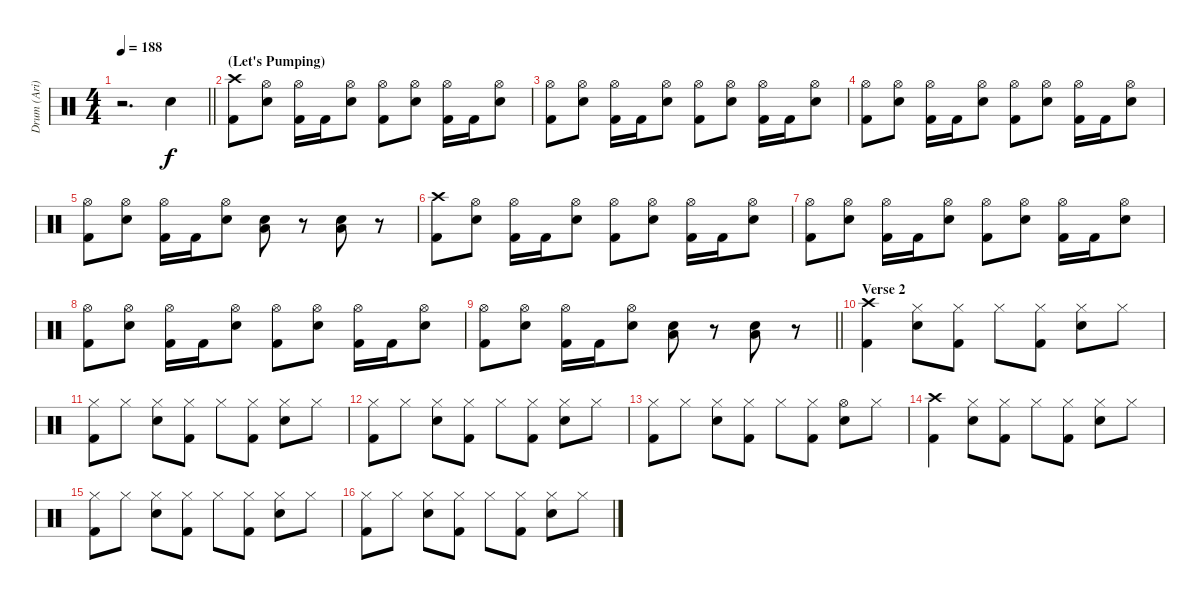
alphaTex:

\track ("Drum (Ari)" "Drum (Ari)") {instrument percussion}
\staff {score}
\articulation defaults
\ts (4 4)
\tempo 188
\clef neutral
\barLineRight lightlight
\ks c
r.2{d dy f} "Electric Snare (hit)".4 |
\section ("" "(Let's Pumping)")
("Crash high (hit)" "Kick (hit) 2").8 ("Hi-Hat (open)" "Electric Snare (hit)").8 ("Hi-Hat (open)" "Kick (hit) 2").16 "Kick (hit) 2".16 ("Hi-Hat (open)" "Electric Snare (hit)").8 ("Hi-Hat (open)" "Kick (hit) 2").8 ("Hi-Hat (open)" "Electric Snare (hit)").8 ("Hi-Hat (open)" "Kick (hit) 2").16 "Kick (hit) 2".16 ("Hi-Hat (open)" "Electric Snare (hit)").8 |
("Hi-Hat (open)" "Kick (hit) 2").8 ("Hi-Hat (open)" "Electric Snare (hit)").8 ("Hi-Hat (open)" "Kick (hit) 2").16 "Kick (hit) 2".16 ("Hi-Hat (open)" "Electric Snare (hit)").8 ("Hi-Hat (open)" "Kick (hit) 2").8 ("Hi-Hat (open)" "Electric Snare (hit)").8 ("Hi-Hat (open)" "Kick (hit) 2").16 "Kick (hit) 2".16 ("Hi-Hat (open)" "Electric Snare (hit)").8 |
("Hi-Hat (open)" "Kick (hit) 2").8 ("Hi-Hat (open)" "Electric Snare (hit)").8 ("Hi-Hat (open)" "Kick (hit) 2").16 "Kick (hit) 2".16 ("Hi-Hat (open)" "Electric Snare (hit)").8 ("Hi-Hat (open)" "Kick (hit) 2").8 ("Hi-Hat (open)" "Electric Snare (hit)").8 ("Hi-Hat (open)" "Kick (hit) 2").16 "Kick (hit) 2".16 ("Hi-Hat (open)" "Electric Snare (hit)").8 |
("Hi-Hat (open)" "Kick (hit) 2").8 ("Hi-Hat (open)" "Electric Snare (hit)").8 ("Hi-Hat (open)" "Kick (hit) 2").16 "Kick (hit) 2".16 ("Hi-Hat (open)" "Electric Snare (hit)").8 ("Electric Snare (hit)" "Low Floor Tom (hit)").8 r.8 ("Electric Snare (hit)" "Low Floor Tom (hit)").8 r.8 |
("Crash high (hit)" "Kick (hit) 2").8 ("Hi-Hat (open)" "Electric Snare (hit)").8 ("Hi-Hat (open)" "Kick (hit) 2").16 "Kick (hit) 2".16 ("Hi-Hat (open)" "Electric Snare (hit)").8 ("Hi-Hat (open)" "Kick (hit) 2").8 ("Hi-Hat (open)" "Electric Snare (hit)").8 ("Hi-Hat (open)" "Kick (hit) 2").16 "Kick (hit) 2".16 ("Hi-Hat (open)" "Electric Snare (hit)").8 |
("Hi-Hat (open)" "Kick (hit) 2").8 ("Hi-Hat (open)" "Electric Snare (hit)").8 ("Hi-Hat (open)" "Kick (hit) 2").16 "Kick (hit) 2".16 ("Hi-Hat (open)" "Electric Snare (hit)").8 ("Hi-Hat (open)" "Kick (hit) 2").8 ("Hi-Hat (open)" "Electric Snare (hit)").8 ("Hi-Hat (open)" "Kick (hit) 2").16 "Kick (hit) 2".16 ("Hi-Hat (open)" "Electric Snare (hit)").8 |
("Hi-Hat (open)" "Kick (hit) 2").8 ("Hi-Hat (open)" "Electric Snare (hit)").8 ("Hi-Hat (open)" "Kick (hit) 2").16 "Kick (hit) 2".16 ("Hi-Hat (open)" "Electric Snare (hit)").8 ("Hi-Hat (open)" "Kick (hit) 2").8 ("Hi-Hat (open)" "Electric Snare (hit)").8 ("Hi-Hat (open)" "Kick (hit) 2").16 "Kick (hit) 2".16 ("Hi-Hat (open)" "Electric Snare (hit)").8 |
\barLineRight lightlight
("Hi-Hat (open)" "Kick (hit) 2").8 ("Hi-Hat (open)" "Electric Snare (hit)").8 ("Hi-Hat (open)" "Kick (hit) 2").16 "Kick (hit) 2".16 ("Hi-Hat (open)" "Electric Snare (hit)").8 ("Electric Snare (hit)" "Low Floor Tom (hit)").8 r.8 ("Electric Snare (hit)" "Low Floor Tom (hit)").8 r.8 |
\section ("" "Verse 2")
("Crash high (hit)" "Kick (hit) 2").4 ("Hi-Hat (closed)" "Electric Snare (hit)").8 ("Hi-Hat (closed)" "Kick (hit) 2").8 "Hi-Hat (closed)".8 ("Hi-Hat (closed)" "Kick (hit) 2").8 ("Hi-Hat (closed)" "Electric Snare (hit)").8 "Hi-Hat (closed)".8 |
("Hi-Hat (closed)" "Kick (hit) 2").8 "Hi-Hat (closed)".8 ("Hi-Hat (closed)" "Electric Snare (hit)").8 ("Hi-Hat (closed)" "Kick (hit) 2").8 "Hi-Hat (closed)".8 ("Hi-Hat (closed)" "Kick (hit) 2").8 ("Hi-Hat (closed)" "Electric Snare (hit)").8 "Hi-Hat (closed)".8 |
("Hi-Hat (closed)" "Kick (hit) 2").8 "Hi-Hat (closed)".8 ("Hi-Hat (closed)" "Electric Snare (hit)").8 ("Hi-Hat (closed)" "Kick (hit) 2").8 "Hi-Hat (closed)".8 ("Hi-Hat (closed)" "Kick (hit) 2").8 ("Hi-Hat (closed)" "Electric Snare (hit)").8 "Hi-Hat (closed)".8 |
("Hi-Hat (closed)" "Kick (hit) 2").8 "Hi-Hat (closed)".8 ("Hi-Hat (closed)" "Electric Snare (hit)").8 ("Hi-Hat (closed)" "Kick (hit) 2").8 "Hi-Hat (closed)".8 ("Hi-Hat (closed)" "Kick (hit) 2").8 ("Hi-Hat (open)" "Electric Snare (hit)").8 "Hi-Hat (closed)".8 |
("Crash high (hit)" "Kick (hit) 2").4 ("Hi-Hat (closed)" "Electric Snare (hit)").8 ("Hi-Hat (closed)" "Kick (hit) 2").8 "Hi-Hat (closed)".8 ("Hi-Hat (closed)" "Kick (hit) 2").8 ("Hi-Hat (closed)" "Electric Snare (hit)").8 "Hi-Hat (closed)".8 |
("Hi-Hat (closed)" "Kick (hit) 2").8 "Hi-Hat (closed)".8 ("Hi-Hat (closed)" "Electric Snare (hit)").8 ("Hi-Hat (closed)" "Kick (hit) 2").8 "Hi-Hat (closed)".8 ("Hi-Hat (closed)" "Kick (hit) 2").8 ("Hi-Hat (closed)" "Electric Snare (hit)").8 "Hi-Hat (closed)".8 |
("Hi-Hat (closed)" "Kick (hit) 2").8 "Hi-Hat (closed)".8 ("Hi-Hat (closed)" "Electric Snare (hit)").8 ("Hi-Hat (closed)" "Kick (hit) 2").8 "Hi-Hat (closed)".8 ("Hi-Hat (closed)" "Kick (hit) 2").8 ("Hi-Hat (closed)" "Electric Snare (hit)").8 "Hi-Hat (closed)".8
